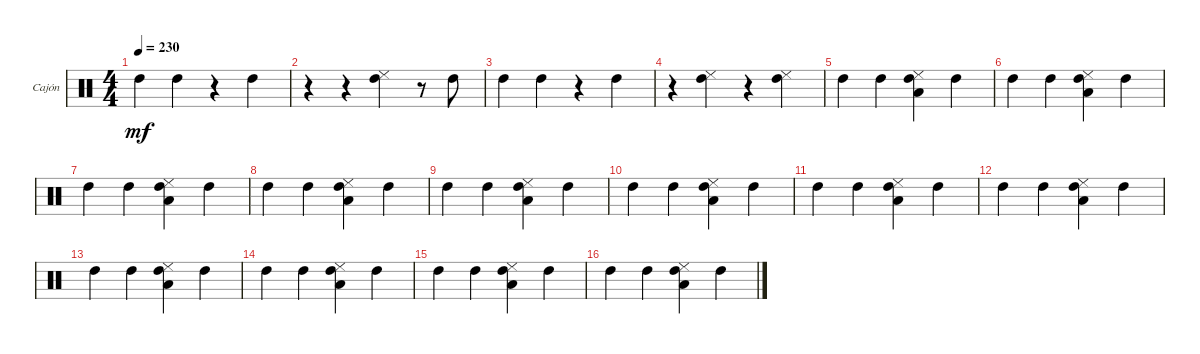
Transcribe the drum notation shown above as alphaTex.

\defaultSystemsLayout 4
\bracketExtendMode groupsimilarinstruments
\firstSystemTrackNameOrientation horizontal
\otherSystemsTrackNameOrientation horizontal
\track ("Cajón (Ira)" "Cajón") {instrument percussion}
\staff {score}
\articulation defaults
\ts (4 4)
\tempo 230
\clef neutral
\scale
0.333333
\ks c "High Tom (hit)".4{dy mf} "High Tom (hit)".4
r.4 "High Tom (hit)".4 |
\scale
0.333333 r.4 r.4 ("Cowbell low (tip)" "High Tom (hit)").4 r.8 "High Tom (hit)".8 |
\scale
0.333333 "High Tom (hit)".4 "High Tom (hit)".4 r.4 "High Tom (hit)".4 |
\scale
0.333333 r.4 ("High Tom (hit)" "Cowbell low (tip)").4 r.4 ("High Tom (hit)" "Cowbell low (tip)").4 |
\scale
0.333333 "High Tom (hit)".4 "High Tom (hit)".4 ("Cowbell low (tip)" "High Tom (hit)" "Low Tom (hit)").4 "High Tom (hit)".4 |
\scale
0.333333 "High Tom (hit)".4 "High Tom (hit)".4 ("Cowbell low (tip)" "High Tom (hit)" "Low Tom (hit)").4 "High Tom (hit)".4 |
\scale
0.333333 "High Tom (hit)".4 "High Tom (hit)".4 ("High Tom (hit)" "Cowbell low (tip)" "Low Tom (hit)").4 "High Tom (hit)".4 |
\scale
0.333333 "High Tom (hit)".4 "High Tom (hit)".4 ("High Tom (hit)" "Cowbell low (tip)" "Low Tom (hit)").4 "High Tom (hit)".4 |
\scale
0.333333 "High Tom (hit)".4 "High Tom (hit)".4 ("High Tom (hit)" "Cowbell low (tip)" "Low Tom (hit)").4 "High Tom (hit)".4 |
\scale
0.333333 "High Tom (hit)".4 "High Tom (hit)".4 ("High Tom (hit)" "Cowbell low (tip)" "Low Tom (hit)").4 "High Tom (hit)".4 |
\scale
0.333333 "High Tom (hit)".4 "High Tom (hit)".4 ("High Tom (hit)" "Low Tom (hit)" "Cowbell low (tip)").4 "High Tom (hit)".4 |
\scale
0.333333 "High Tom (hit)".4 "High Tom (hit)".4 ("Low Tom (hit)" "Cowbell low (tip)" "High Tom (hit)").4 "High Tom (hit)".4 |
\scale
0.333333 "High Tom (hit)".4 "High Tom (hit)".4 ("High Tom (hit)" "Low Tom (hit)" "Cowbell low (tip)").4 "High Tom (hit)".4 |
\scale
0.333333 "High Tom (hit)".4 "High Tom (hit)".4 ("High Tom (hit)" "Low Tom (hit)" "Cowbell low (tip)").4 "High Tom (hit)".4 |
\scale
0.333333 "High Tom (hit)".4 "High Tom (hit)".4 ("High Tom (hit)" "Low Tom (hit)" "Cowbell low (tip)").4 "High Tom (hit)".4 |
\scale
0.333333 "High Tom (hit)".4 "High Tom (hit)".4 ("High Tom (hit)" "Low Tom (hit)" "Cowbell low (tip)").4 "High Tom (hit)".4
